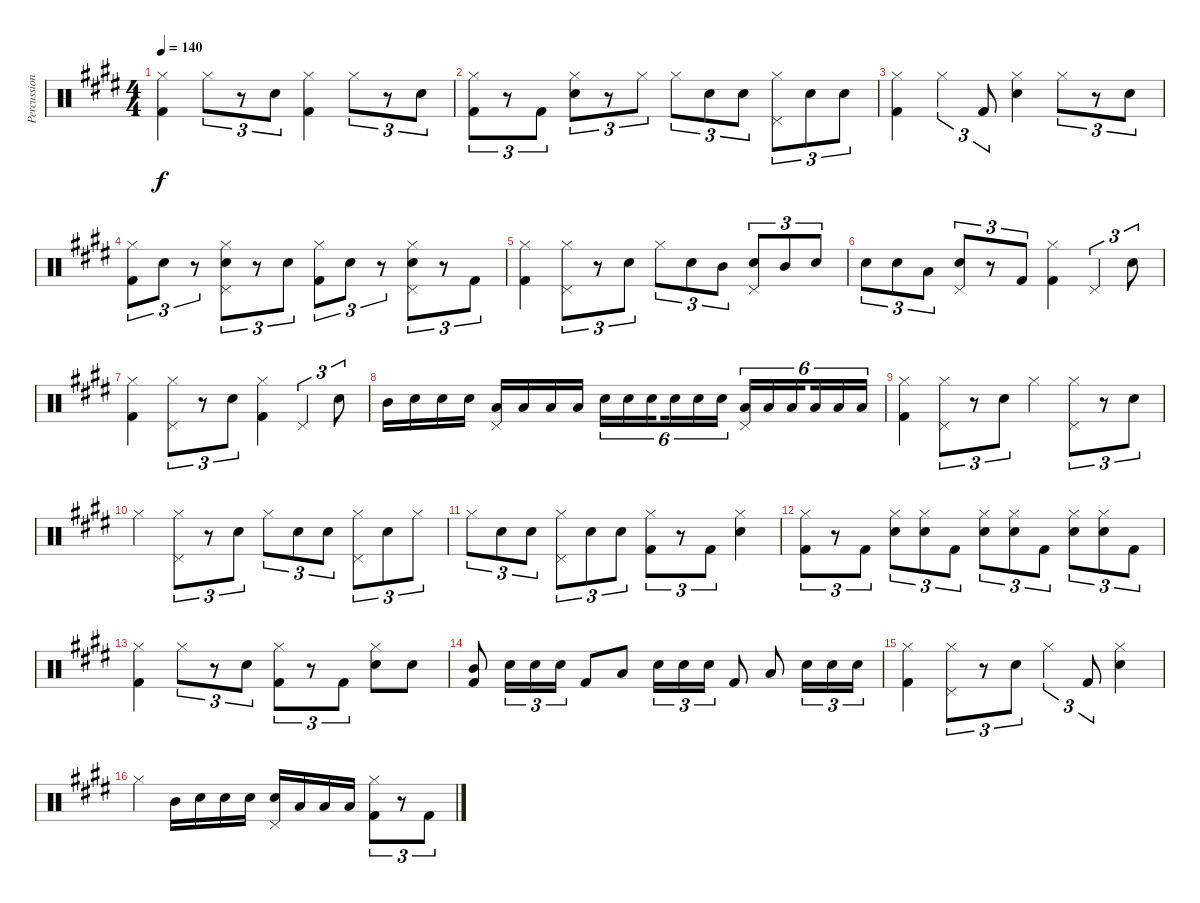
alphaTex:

\track ("Percussion" "Percussion") {instrument percussion}
\staff {score}
\articulation defaults
\ts (4 4)
\tempo 140
\clef neutral
\ks e
("Hi-Hat (closed)" "Kick (hit) 2").4{dy f} "Hi-Hat (closed)".8{tu (3 2)} r.8{tu (3 2)} "Snare (hit) 2".8{tu (3 2)} ("Hi-Hat (closed)" "Kick (hit) 2").4 "Hi-Hat (closed)".8{tu (3 2)} r.8{tu (3 2)} "Snare (hit) 2".8{tu (3 2)} |
("Hi-Hat (closed)" "Kick (hit) 2").8{tu (3 2)} r.8{tu (3 2)} "Kick (hit) 2".8{tu (3 2)} ("Hi-Hat (closed)" "Snare (hit) 2").8{tu (3 2)} r.8{tu (3 2)} "Hi-Hat (closed)".8{tu (3 2)} "Hi-Hat (closed)".8{tu (3 2)} "Snare (hit) 2".8{tu (3 2)} "Snare (hit) 2".8{tu (3 2)} ("Hi-Hat (closed)" "Pedal Hi-Hat (hit)").8{tu (3 2)} "Snare (hit) 2".8{tu (3 2)} "Snare (hit) 2".8{tu (3 2)} |
("Hi-Hat (closed)" "Kick (hit) 2").4 "Hi-Hat (closed)".4{tu (3 2)} "Kick (hit) 2".8{tu (3 2)} ("Hi-Hat (closed)" "Snare (hit) 2").4 "Hi-Hat (closed)".8{tu (3 2)} r.8{tu (3 2)} "Snare (hit) 2".8{tu (3 2)} |
("Hi-Hat (closed)" "Kick (hit) 2").8{tu (3 2)} "Snare (hit) 2".8{tu (3 2)} r.8{tu (3 2)} ("Hi-Hat (closed)" "Snare (hit) 2" "Pedal Hi-Hat (hit)").8{tu (3 2)} r.8{tu (3 2)} "Snare (hit) 2".8{tu (3 2)} ("Hi-Hat (closed)" "Kick (hit) 2").8{tu (3 2)} "Snare (hit) 2".8{tu (3 2)} r.8{tu (3 2)} ("Hi-Hat (closed)" "Snare (hit) 2" "Pedal Hi-Hat (hit)").8{tu (3 2)} r.8{tu (3 2)} "Kick (hit) 2".8{tu (3 2)} |
("Hi-Hat (closed)" "Kick (hit) 2").4 ("Hi-Hat (closed)" "Pedal Hi-Hat (hit)").8{tu (3 2)} r.8{tu (3 2)} "Snare (hit) 2".8{tu (3 2)} "Hi-Hat (closed)".8{tu (3 2)} "Snare (hit) 2".8{tu (3 2)} "Mid Tom (hit)".8{tu (3 2)} ("Snare (hit) 2" "Pedal Hi-Hat (hit)").8{tu (3 2)} "Mid Tom (hit)".8{tu (3 2)} "Snare (hit) 2".8{tu (3 2)} |
"Snare (hit) 2".8{tu (3 2)} "Snare (hit) 2".8{tu (3 2)} "Low Floor Tom (hit)".8{tu (3 2)} ("Snare (hit) 2" "Pedal Hi-Hat (hit)").8{tu (3 2)} r.8{tu (3 2)} "Kick (hit) 2".8{tu (3 2)} ("Hi-Hat (closed)" "Kick (hit) 2").4 "Pedal Hi-Hat (hit)".4{tu (3 2)} "Snare (hit) 2".8{tu (3 2)} |
("Hi-Hat (closed)" "Kick (hit) 2").4 ("Hi-Hat (closed)" "Pedal Hi-Hat (hit)").8{tu (3 2)} r.8{tu (3 2)} "Snare (hit) 2".8{tu (3 2)} ("Hi-Hat (closed)" "Kick (hit) 2").4 "Pedal Hi-Hat (hit)".4{tu (3 2)} "Snare (hit) 2".8{tu (3 2)} |
"Mid Tom (hit)".16 "Snare (hit) 2".16 "Snare (hit) 2".16 "Snare (hit) 2".16 ("Low Floor Tom (hit)" "Pedal Hi-Hat (hit)").16 "Low Floor Tom (hit)".16 "Low Floor Tom (hit)".16 "Low Floor Tom (hit)".16 "Snare (hit) 2".16{tu (6 4)} "Snare (hit) 2".16{tu (6 4)} "Snare (hit) 2".16{tu (6 4) beam splitsecondary} "Snare (hit) 2".16{tu (6 4)} "Snare (hit) 2".16{tu (6 4)} "Snare (hit) 2".16{tu (6 4)} ("Low Floor Tom (hit)" "Pedal Hi-Hat (hit)").16{tu (6 4)} "Low Floor Tom (hit)".16{tu (6 4)} "Low Floor Tom (hit)".16{tu (6 4) beam splitsecondary} "Low Floor Tom (hit)".16{tu (6 4)} "Low Floor Tom (hit)".16{tu (6 4)} "Low Floor Tom (hit)".16{tu (6 4)} |
("Hi-Hat (closed)" "Kick (hit) 2").4 ("Hi-Hat (closed)" "Pedal Hi-Hat (hit)").8{tu (3 2)} r.8{tu (3 2)} "Snare (hit) 2".8{tu (3 2)} "Hi-Hat (closed)".4 ("Hi-Hat (closed)" "Pedal Hi-Hat (hit)").8{tu (3 2)} r.8{tu (3 2)} "Snare (hit) 2".8{tu (3 2)} |
"Hi-Hat (closed)".4 ("Hi-Hat (closed)" "Pedal Hi-Hat (hit)").8{tu (3 2)} r.8{tu (3 2)} "Snare (hit) 2".8{tu (3 2)} "Hi-Hat (closed)".8{tu (3 2)} "Snare (hit) 2".8{tu (3 2)} "Snare (hit) 2".8{tu (3 2)} ("Hi-Hat (closed)" "Pedal Hi-Hat (hit)").8{tu (3 2)} "Snare (hit) 2".8{tu (3 2)} "Hi-Hat (closed)".8{tu (3 2)} |
"Hi-Hat (closed)".8{tu (3 2)} "Snare (hit) 2".8{tu (3 2)} "Snare (hit) 2".8{tu (3 2)} ("Hi-Hat (closed)" "Pedal Hi-Hat (hit)").8{tu (3 2)} "Snare (hit) 2".8{tu (3 2)} "Snare (hit) 2".8{tu (3 2)} ("Hi-Hat (closed)" "Kick (hit) 2").8{tu (3 2)} r.8{tu (3 2)} "Kick (hit) 2".8{tu (3 2)} ("Hi-Hat (closed)" "Snare (hit) 2").4 |
("Hi-Hat (closed)" "Kick (hit) 2").8{tu (3 2)} r.8{tu (3 2)} "Kick (hit) 2".8{tu (3 2)} ("Hi-Hat (closed)" "Snare (hit) 2").8{tu (3 2)} ("Hi-Hat (closed)" "Snare (hit) 2").8{tu (3 2)} "Kick (hit) 2".8{tu (3 2)} ("Hi-Hat (closed)" "Snare (hit) 2").8{tu (3 2)} ("Hi-Hat (closed)" "Snare (hit) 2").8{tu (3 2)} "Kick (hit) 2".8{tu (3 2)} ("Hi-Hat (closed)" "Snare (hit) 2").8{tu (3 2)} ("Hi-Hat (closed)" "Snare (hit) 2").8{tu (3 2)} "Kick (hit) 2".8{tu (3 2)} |
("Hi-Hat (closed)" "Kick (hit) 2").4 "Hi-Hat (closed)".8{tu (3 2)} r.8{tu (3 2)} "Snare (hit) 2".8{tu (3 2)} ("Hi-Hat (closed)" "Kick (hit) 2").8{tu (3 2)} r.8{tu (3 2)} "Kick (hit) 2".8{tu (3 2)} ("Hi-Hat (closed)" "Snare (hit) 2").8 "Snare (hit) 2".8 |
("Mid Tom (hit)" "Kick (hit) 2").8 "Snare (hit) 2".16{tu (3 2)} "Snare (hit) 2".16{tu (3 2)} "Snare (hit) 2".16{tu (3 2)} "Kick (hit) 2".8 "Low Tom (hit)".8 "Snare (hit) 2".16{tu (3 2)} "Snare (hit) 2".16{tu (3 2)} "Snare (hit) 2".16{tu (3 2)} "Kick (hit) 2".8 "Low Floor Tom (hit)".8 "Snare (hit) 2".16{tu (3 2)} "Snare (hit) 2".16{tu (3 2)} "Snare (hit) 2".16{tu (3 2)} |
("Hi-Hat (closed)" "Kick (hit) 2").4 ("Hi-Hat (closed)" "Pedal Hi-Hat (hit)").8{tu (3 2)} r.8{tu (3 2)} "Snare (hit) 2".8{tu (3 2)} "Hi-Hat (closed)".4{tu (3 2)} "Kick (hit) 2".8{tu (3 2)} ("Hi-Hat (closed)" "Snare (hit) 2").4 |
"Hi-Hat (closed)".4 "Mid Tom (hit)".16 "Snare (hit) 2".16 "Snare (hit) 2".16 "Snare (hit) 2".16 ("Snare (hit) 2" "Pedal Hi-Hat (hit)").16 "Low Floor Tom (hit)".16 "Low Floor Tom (hit)".16 "Low Floor Tom (hit)".16 ("Hi-Hat (closed)" "Kick (hit) 2").8{tu (3 2)} r.8{tu (3 2)} "Kick (hit) 2".8{tu (3 2)}
